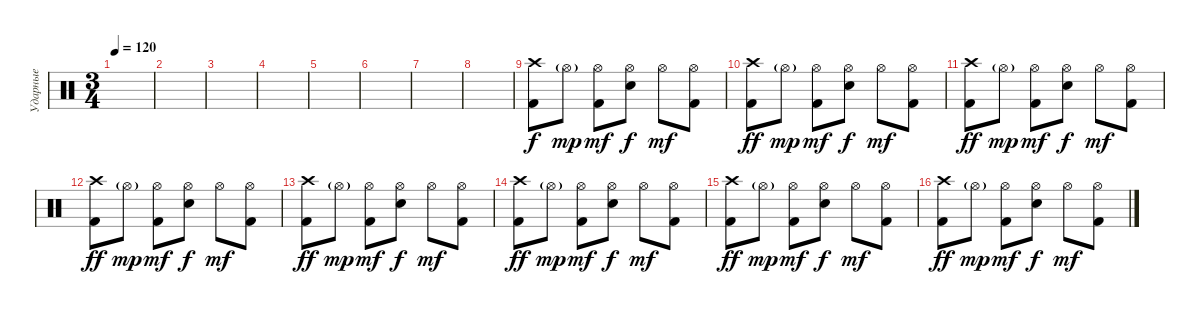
\track ("Ударные" "Ударные") {instrument percussion}
\staff {score}
\articulation defaults
\ts (3 4)
\tempo 120
\clef neutral
\ks c
|
|
|
|
|
|
|
|
("Crash high (hit)" "Kick (hit) 2").8 "Hi-Hat (open)"{g}.8{dy mp} ("Hi-Hat (open)" "Kick (hit) 2").8{dy mf} ("Hi-Hat (open)" "Electric Snare (hit)").8{dy f} "Hi-Hat (open)".8{dy mf} ("Hi-Hat (open)" "Kick (hit) 2").8 |
("Crash high (hit)" "Kick (hit) 2").8{dy ff} "Hi-Hat (open)"{g}.8{dy mp} ("Hi-Hat (open)" "Kick (hit) 2").8{dy mf} ("Hi-Hat (open)" "Electric Snare (hit)").8{dy f} "Hi-Hat (open)".8{dy mf} ("Hi-Hat (open)" "Kick (hit) 2").8 |
("Crash high (hit)" "Kick (hit) 2").8{dy ff} "Hi-Hat (open)"{g}.8{dy mp} ("Hi-Hat (open)" "Kick (hit) 2").8{dy mf} ("Hi-Hat (open)" "Electric Snare (hit)").8{dy f} "Hi-Hat (open)".8{dy mf} ("Hi-Hat (open)" "Kick (hit) 2").8 |
("Crash high (hit)" "Kick (hit) 2").8{dy ff} "Hi-Hat (open)"{g}.8{dy mp} ("Hi-Hat (open)" "Kick (hit) 2").8{dy mf} ("Hi-Hat (open)" "Electric Snare (hit)").8{dy f} "Hi-Hat (open)".8{dy mf} ("Hi-Hat (open)" "Kick (hit) 2").8 |
("Crash high (hit)" "Kick (hit) 2").8{dy ff} "Hi-Hat (open)"{g}.8{dy mp} ("Hi-Hat (open)" "Kick (hit) 2").8{dy mf} ("Hi-Hat (open)" "Electric Snare (hit)").8{dy f} "Hi-Hat (open)".8{dy mf} ("Hi-Hat (open)" "Kick (hit) 2").8 |
("Crash high (hit)" "Kick (hit) 2").8{dy ff} "Hi-Hat (open)"{g}.8{dy mp} ("Hi-Hat (open)" "Kick (hit) 2").8{dy mf} ("Hi-Hat (open)" "Electric Snare (hit)").8{dy f} "Hi-Hat (open)".8{dy mf} ("Hi-Hat (open)" "Kick (hit) 2").8 |
("Crash high (hit)" "Kick (hit) 2").8{dy ff} "Hi-Hat (open)"{g}.8{dy mp} ("Hi-Hat (open)" "Kick (hit) 2").8{dy mf} ("Hi-Hat (open)" "Electric Snare (hit)").8{dy f} "Hi-Hat (open)".8{dy mf} ("Hi-Hat (open)" "Kick (hit) 2").8 |
("Crash high (hit)" "Kick (hit) 2").8{dy ff} "Hi-Hat (open)"{g}.8{dy mp} ("Hi-Hat (open)" "Kick (hit) 2").8{dy mf} ("Hi-Hat (open)" "Electric Snare (hit)").8{dy f} "Hi-Hat (open)".8{dy mf} ("Hi-Hat (open)" "Kick (hit) 2").8
